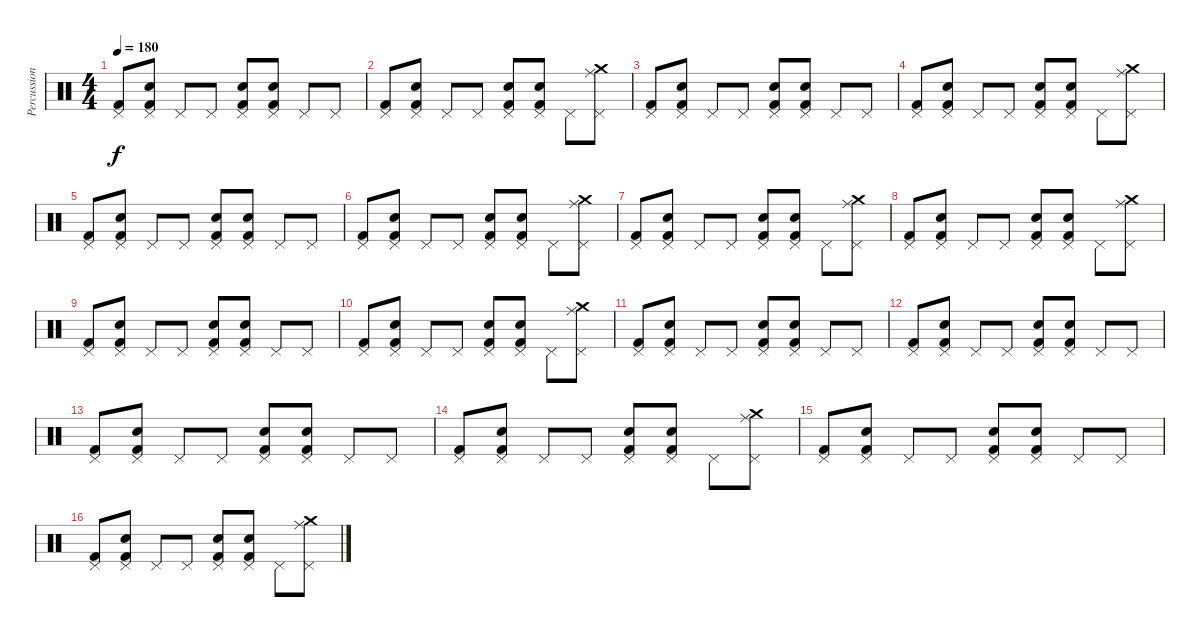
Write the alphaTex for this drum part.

\track ("Percussion" "Percussion") {instrument percussion}
\staff {score}
\articulation defaults
\ts (4 4)
\tempo 180
\clef neutral
\ks c
("Pedal Hi-Hat (hit)" "Kick (hit) 2").8{dy f} ("Pedal Hi-Hat (hit)" "Snare (hit) 2" "Kick (hit) 2").8 "Pedal Hi-Hat (hit)".8 "Pedal Hi-Hat (hit)".8 ("Pedal Hi-Hat (hit)" "Snare (hit) 2" "Kick (hit) 2").8 ("Pedal Hi-Hat (hit)" "Snare (hit) 2" "Kick (hit) 2").8 "Pedal Hi-Hat (hit)".8 "Pedal Hi-Hat (hit)".8 |
("Pedal Hi-Hat (hit)" "Kick (hit) 2").8 ("Pedal Hi-Hat (hit)" "Snare (hit) 2" "Kick (hit) 2").8 "Pedal Hi-Hat (hit)".8 "Pedal Hi-Hat (hit)".8 ("Pedal Hi-Hat (hit)" "Snare (hit) 2" "Kick (hit) 2").8 ("Pedal Hi-Hat (hit)" "Snare (hit) 2" "Kick (hit) 2").8 "Pedal Hi-Hat (hit)".8 ("Pedal Hi-Hat (hit)" "Ride (middle)" "Crash medium (hit)").8 |
("Pedal Hi-Hat (hit)" "Kick (hit) 2").8 ("Pedal Hi-Hat (hit)" "Snare (hit) 2" "Kick (hit) 2").8 "Pedal Hi-Hat (hit)".8 "Pedal Hi-Hat (hit)".8 ("Pedal Hi-Hat (hit)" "Snare (hit) 2" "Kick (hit) 2").8 ("Pedal Hi-Hat (hit)" "Snare (hit) 2" "Kick (hit) 2").8 "Pedal Hi-Hat (hit)".8 "Pedal Hi-Hat (hit)".8 |
("Pedal Hi-Hat (hit)" "Kick (hit) 2").8 ("Pedal Hi-Hat (hit)" "Snare (hit) 2" "Kick (hit) 2").8 "Pedal Hi-Hat (hit)".8 "Pedal Hi-Hat (hit)".8 ("Pedal Hi-Hat (hit)" "Snare (hit) 2" "Kick (hit) 2").8 ("Pedal Hi-Hat (hit)" "Snare (hit) 2" "Kick (hit) 2").8 "Pedal Hi-Hat (hit)".8 ("Pedal Hi-Hat (hit)" "Ride (middle)" "Crash medium (hit)").8 |
("Pedal Hi-Hat (hit)" "Kick (hit) 2").8 ("Pedal Hi-Hat (hit)" "Snare (hit) 2" "Kick (hit) 2").8 "Pedal Hi-Hat (hit)".8 "Pedal Hi-Hat (hit)".8 ("Pedal Hi-Hat (hit)" "Snare (hit) 2" "Kick (hit) 2").8 ("Pedal Hi-Hat (hit)" "Snare (hit) 2" "Kick (hit) 2").8 "Pedal Hi-Hat (hit)".8 "Pedal Hi-Hat (hit)".8 |
("Pedal Hi-Hat (hit)" "Kick (hit) 2").8 ("Pedal Hi-Hat (hit)" "Snare (hit) 2" "Kick (hit) 2").8 "Pedal Hi-Hat (hit)".8 "Pedal Hi-Hat (hit)".8 ("Pedal Hi-Hat (hit)" "Snare (hit) 2" "Kick (hit) 2").8 ("Pedal Hi-Hat (hit)" "Snare (hit) 2" "Kick (hit) 2").8 "Pedal Hi-Hat (hit)".8 ("Pedal Hi-Hat (hit)" "Ride (middle)" "Crash medium (hit)").8 |
("Pedal Hi-Hat (hit)" "Kick (hit) 2").8 ("Pedal Hi-Hat (hit)" "Snare (hit) 2" "Kick (hit) 2").8 "Pedal Hi-Hat (hit)".8 "Pedal Hi-Hat (hit)".8 ("Pedal Hi-Hat (hit)" "Snare (hit) 2" "Kick (hit) 2").8 ("Pedal Hi-Hat (hit)" "Snare (hit) 2" "Kick (hit) 2").8 "Pedal Hi-Hat (hit)".8 ("Pedal Hi-Hat (hit)" "Ride (middle)" "Crash medium (hit)").8 |
("Pedal Hi-Hat (hit)" "Kick (hit) 2").8 ("Pedal Hi-Hat (hit)" "Snare (hit) 2" "Kick (hit) 2").8 "Pedal Hi-Hat (hit)".8 "Pedal Hi-Hat (hit)".8 ("Pedal Hi-Hat (hit)" "Snare (hit) 2" "Kick (hit) 2").8 ("Pedal Hi-Hat (hit)" "Snare (hit) 2" "Kick (hit) 2").8 "Pedal Hi-Hat (hit)".8 ("Pedal Hi-Hat (hit)" "Ride (middle)" "Crash medium (hit)").8 |
("Pedal Hi-Hat (hit)" "Kick (hit) 2").8 ("Pedal Hi-Hat (hit)" "Snare (hit) 2" "Kick (hit) 2").8 "Pedal Hi-Hat (hit)".8 "Pedal Hi-Hat (hit)".8 ("Pedal Hi-Hat (hit)" "Snare (hit) 2" "Kick (hit) 2").8 ("Pedal Hi-Hat (hit)" "Snare (hit) 2" "Kick (hit) 2").8 "Pedal Hi-Hat (hit)".8 "Pedal Hi-Hat (hit)".8 |
("Pedal Hi-Hat (hit)" "Kick (hit) 2").8 ("Pedal Hi-Hat (hit)" "Snare (hit) 2" "Kick (hit) 2").8 "Pedal Hi-Hat (hit)".8 "Pedal Hi-Hat (hit)".8 ("Pedal Hi-Hat (hit)" "Snare (hit) 2" "Kick (hit) 2").8 ("Pedal Hi-Hat (hit)" "Snare (hit) 2" "Kick (hit) 2").8 "Pedal Hi-Hat (hit)".8 ("Pedal Hi-Hat (hit)" "Ride (middle)" "Crash medium (hit)").8 |
("Pedal Hi-Hat (hit)" "Kick (hit) 2").8 ("Pedal Hi-Hat (hit)" "Snare (hit) 2" "Kick (hit) 2").8 "Pedal Hi-Hat (hit)".8 "Pedal Hi-Hat (hit)".8 ("Pedal Hi-Hat (hit)" "Snare (hit) 2" "Kick (hit) 2").8 ("Pedal Hi-Hat (hit)" "Snare (hit) 2" "Kick (hit) 2").8 "Pedal Hi-Hat (hit)".8 "Pedal Hi-Hat (hit)".8 |
("Pedal Hi-Hat (hit)" "Kick (hit) 2").8 ("Pedal Hi-Hat (hit)" "Snare (hit) 2" "Kick (hit) 2").8 "Pedal Hi-Hat (hit)".8 "Pedal Hi-Hat (hit)".8 ("Pedal Hi-Hat (hit)" "Snare (hit) 2" "Kick (hit) 2").8 ("Pedal Hi-Hat (hit)" "Snare (hit) 2" "Kick (hit) 2").8 "Pedal Hi-Hat (hit)".8 "Pedal Hi-Hat (hit)".8 |
("Pedal Hi-Hat (hit)" "Kick (hit) 2").8 ("Pedal Hi-Hat (hit)" "Snare (hit) 2" "Kick (hit) 2").8 "Pedal Hi-Hat (hit)".8 "Pedal Hi-Hat (hit)".8 ("Pedal Hi-Hat (hit)" "Snare (hit) 2" "Kick (hit) 2").8 ("Pedal Hi-Hat (hit)" "Snare (hit) 2" "Kick (hit) 2").8 "Pedal Hi-Hat (hit)".8 "Pedal Hi-Hat (hit)".8 |
("Pedal Hi-Hat (hit)" "Kick (hit) 2").8 ("Pedal Hi-Hat (hit)" "Snare (hit) 2" "Kick (hit) 2").8 "Pedal Hi-Hat (hit)".8 "Pedal Hi-Hat (hit)".8 ("Pedal Hi-Hat (hit)" "Snare (hit) 2" "Kick (hit) 2").8 ("Pedal Hi-Hat (hit)" "Snare (hit) 2" "Kick (hit) 2").8 "Pedal Hi-Hat (hit)".8 ("Pedal Hi-Hat (hit)" "Ride (middle)" "Crash medium (hit)").8 |
("Pedal Hi-Hat (hit)" "Kick (hit) 2").8 ("Pedal Hi-Hat (hit)" "Snare (hit) 2" "Kick (hit) 2").8 "Pedal Hi-Hat (hit)".8 "Pedal Hi-Hat (hit)".8 ("Pedal Hi-Hat (hit)" "Snare (hit) 2" "Kick (hit) 2").8 ("Pedal Hi-Hat (hit)" "Snare (hit) 2" "Kick (hit) 2").8 "Pedal Hi-Hat (hit)".8 "Pedal Hi-Hat (hit)".8 |
("Pedal Hi-Hat (hit)" "Kick (hit) 2").8 ("Pedal Hi-Hat (hit)" "Snare (hit) 2" "Kick (hit) 2").8 "Pedal Hi-Hat (hit)".8 "Pedal Hi-Hat (hit)".8 ("Pedal Hi-Hat (hit)" "Snare (hit) 2" "Kick (hit) 2").8 ("Pedal Hi-Hat (hit)" "Snare (hit) 2" "Kick (hit) 2").8 "Pedal Hi-Hat (hit)".8 ("Pedal Hi-Hat (hit)" "Ride (middle)" "Crash medium (hit)").8
